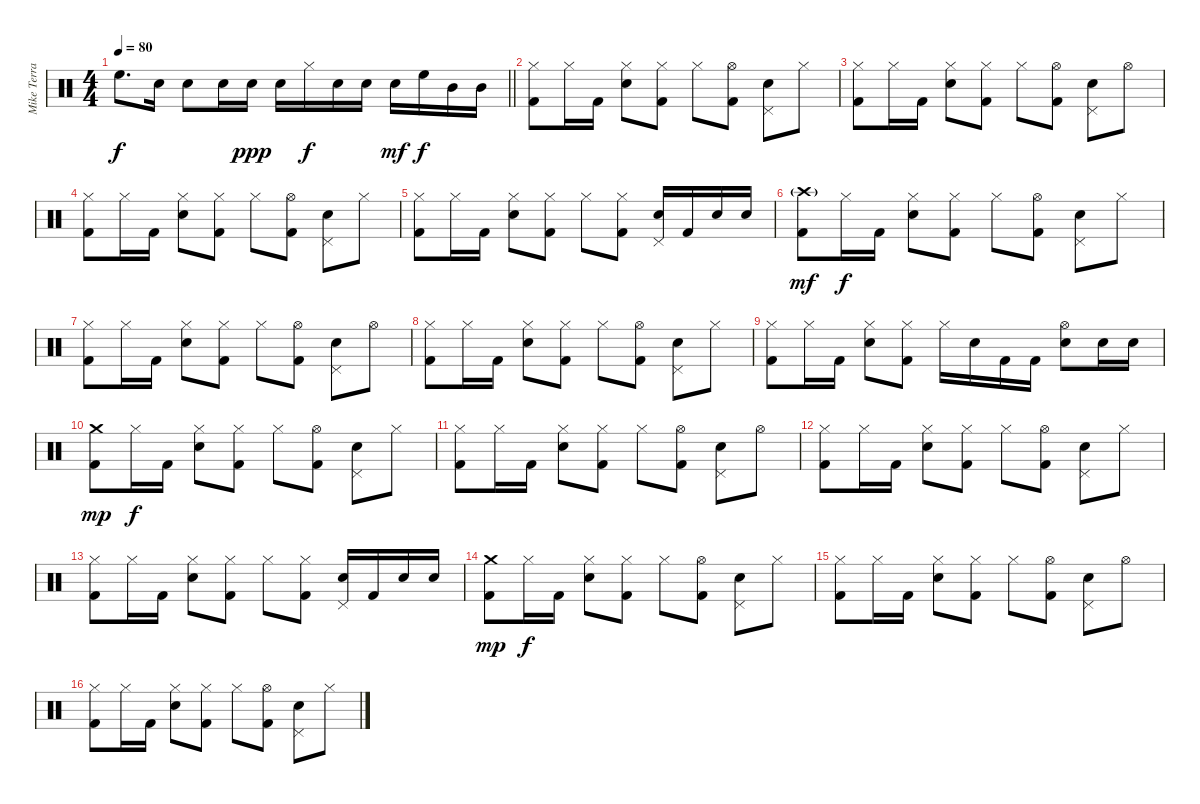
\track ("Mike Terrana" "Mike Terra") {instrument percussion}
\staff {score}
\articulation defaults
\ts (4 4)
\tempo 80
\clef neutral
\barLineRight lightlight
\ks c "High Floor Tom (hit)".8{d dy f} "Electric Snare (hit)".16 "Electric Snare (hit)".8 "Electric Snare (hit)".16 "Electric Snare (hit)".16{dy ppp} "Electric Snare (hit)"{x}.16 "Hi-Hat (closed)".16{dy f} "Electric Snare (hit)"{x}.16 "Electric Snare (hit)".16 "Electric Snare (hit)".16{dy mf} "High Floor Tom (hit)".16{dy f} "Mid Tom (hit)".16 "Mid Tom (hit)".16
|
("Hi-Hat (closed)" "Kick (hit) 2").8 "Hi-Hat (closed)".16 "Kick (hit) 2".16 ("Hi-Hat (closed)" "Electric Snare (hit)").8 ("Hi-Hat (closed)" "Kick (hit) 2").8 "Hi-Hat (closed)".8 ("Hi-Hat (open)" "Kick (hit) 2").8 ("Pedal Hi-Hat (hit)" "Electric Snare (hit)").8 "Hi-Hat (closed)".8 |
("Hi-Hat (closed)" "Kick (hit) 2").8 "Hi-Hat (closed)".16 "Kick (hit) 2".16 ("Hi-Hat (closed)" "Electric Snare (hit)").8 ("Hi-Hat (closed)" "Kick (hit) 2").8 "Hi-Hat (closed)".8 ("Hi-Hat (open)" "Kick (hit) 2").8 ("Pedal Hi-Hat (hit)" "Electric Snare (hit)").8 "Hi-Hat (open)".8 |
("Hi-Hat (closed)" "Kick (hit) 2").8 "Hi-Hat (closed)".16 "Kick (hit) 2".16 ("Hi-Hat (closed)" "Electric Snare (hit)").8 ("Hi-Hat (closed)" "Kick (hit) 2").8 "Hi-Hat (closed)".8 ("Hi-Hat (open)" "Kick (hit) 2").8 ("Pedal Hi-Hat (hit)" "Electric Snare (hit)").8 "Hi-Hat (closed)".8 |
("Hi-Hat (closed)" "Kick (hit) 2").8 "Hi-Hat (closed)".16 "Kick (hit) 2".16 ("Hi-Hat (closed)" "Electric Snare (hit)").8 ("Hi-Hat (closed)" "Kick (hit) 2").8 "Hi-Hat (closed)".8 ("Hi-Hat (closed)" "Kick (hit) 2").8 ("Pedal Hi-Hat (hit)" "Electric Snare (hit)").16 "Kick (hit) 2".16 "Electric Snare (hit)".16 "Electric Snare (hit)".16 |
("Crash high (hit)"{g} "Kick (hit) 2").8{dy mf} "Hi-Hat (closed)".16{dy f} "Kick (hit) 2".16 ("Hi-Hat (closed)" "Electric Snare (hit)").8 ("Hi-Hat (closed)" "Kick (hit) 2").8 "Hi-Hat (closed)".8 ("Hi-Hat (open)" "Kick (hit) 2").8 ("Pedal Hi-Hat (hit)" "Electric Snare (hit)").8 "Hi-Hat (closed)".8 |
("Hi-Hat (closed)" "Kick (hit) 2").8 "Hi-Hat (closed)".16 "Kick (hit) 2".16 ("Hi-Hat (closed)" "Electric Snare (hit)").8 ("Hi-Hat (closed)" "Kick (hit) 2").8 "Hi-Hat (closed)".8 ("Hi-Hat (open)" "Kick (hit) 2").8 ("Pedal Hi-Hat (hit)" "Electric Snare (hit)").8 "Hi-Hat (open)".8 |
("Hi-Hat (closed)" "Kick (hit) 2").8 "Hi-Hat (closed)".16 "Kick (hit) 2".16 ("Hi-Hat (closed)" "Electric Snare (hit)").8 ("Hi-Hat (closed)" "Kick (hit) 2").8 "Hi-Hat (closed)".8 ("Hi-Hat (open)" "Kick (hit) 2").8 ("Pedal Hi-Hat (hit)" "Electric Snare (hit)").8 "Hi-Hat (closed)".8 |
("Hi-Hat (closed)" "Kick (hit) 2").8 "Hi-Hat (closed)".16 "Kick (hit) 2".16 ("Hi-Hat (closed)" "Electric Snare (hit)").8 ("Hi-Hat (closed)" "Kick (hit) 2").8 "Hi-Hat (closed)".16 "Electric Snare (hit)".16 "Kick (hit) 2".16 "Kick (hit) 2".16 ("Hi-Hat (open)" "Electric Snare (hit)").8 "Electric Snare (hit)".16 "Electric Snare (hit)".16 |
("Crash medium (hit)" "Kick (hit) 2").8{dy mp} "Hi-Hat (closed)".16{dy f} "Kick (hit) 2".16 ("Hi-Hat (closed)" "Electric Snare (hit)").8 ("Hi-Hat (closed)" "Kick (hit) 2").8 "Hi-Hat (closed)".8 ("Hi-Hat (open)" "Kick (hit) 2").8 ("Pedal Hi-Hat (hit)" "Electric Snare (hit)").8 "Hi-Hat (closed)".8 |
("Hi-Hat (closed)" "Kick (hit) 2").8 "Hi-Hat (closed)".16 "Kick (hit) 2".16 ("Hi-Hat (closed)" "Electric Snare (hit)").8 ("Hi-Hat (closed)" "Kick (hit) 2").8 "Hi-Hat (closed)".8 ("Hi-Hat (open)" "Kick (hit) 2").8 ("Pedal Hi-Hat (hit)" "Electric Snare (hit)").8 "Hi-Hat (open)".8 |
("Hi-Hat (closed)" "Kick (hit) 2").8 "Hi-Hat (closed)".16 "Kick (hit) 2".16 ("Hi-Hat (closed)" "Electric Snare (hit)").8 ("Hi-Hat (closed)" "Kick (hit) 2").8 "Hi-Hat (closed)".8 ("Hi-Hat (open)" "Kick (hit) 2").8 ("Pedal Hi-Hat (hit)" "Electric Snare (hit)").8 "Hi-Hat (closed)".8 |
("Hi-Hat (closed)" "Kick (hit) 2").8 "Hi-Hat (closed)".16 "Kick (hit) 2".16 ("Hi-Hat (closed)" "Electric Snare (hit)").8 ("Hi-Hat (closed)" "Kick (hit) 2").8 "Hi-Hat (closed)".8 ("Hi-Hat (closed)" "Kick (hit) 2").8 ("Pedal Hi-Hat (hit)" "Electric Snare (hit)").16 "Kick (hit) 2".16 "Electric Snare (hit)".16 "Electric Snare (hit)".16 |
("Crash medium (hit)" "Kick (hit) 2").8{dy mp} "Hi-Hat (closed)".16{dy f} "Kick (hit) 2".16 ("Hi-Hat (closed)" "Electric Snare (hit)").8 ("Hi-Hat (closed)" "Kick (hit) 2").8 "Hi-Hat (closed)".8 ("Hi-Hat (open)" "Kick (hit) 2").8 ("Pedal Hi-Hat (hit)" "Electric Snare (hit)").8 "Hi-Hat (closed)".8 |
("Hi-Hat (closed)" "Kick (hit) 2").8 "Hi-Hat (closed)".16 "Kick (hit) 2".16 ("Hi-Hat (closed)" "Electric Snare (hit)").8 ("Hi-Hat (closed)" "Kick (hit) 2").8 "Hi-Hat (closed)".8 ("Hi-Hat (open)" "Kick (hit) 2").8 ("Pedal Hi-Hat (hit)" "Electric Snare (hit)").8 "Hi-Hat (open)".8 |
("Hi-Hat (closed)" "Kick (hit) 2").8 "Hi-Hat (closed)".16 "Kick (hit) 2".16 ("Hi-Hat (closed)" "Electric Snare (hit)").8 ("Hi-Hat (closed)" "Kick (hit) 2").8 "Hi-Hat (closed)".8 ("Hi-Hat (open)" "Kick (hit) 2").8 ("Pedal Hi-Hat (hit)" "Electric Snare (hit)").8 "Hi-Hat (closed)".8
